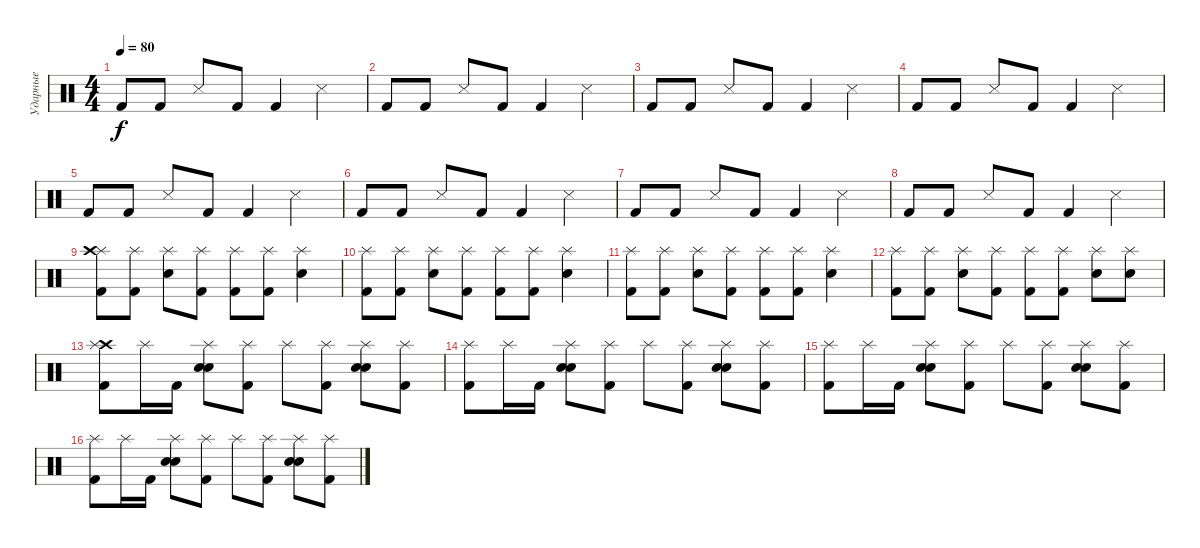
\track ("Ударные" "Ударные") {instrument percussion}
\staff {score}
\articulation defaults
\ts (4 4)
\tempo 80
\clef neutral
\ks c "Kick (hit) 2".8{dy f} "Kick (hit) 2".8 "Snare (side stick) 3".8 "Kick (hit) 2".8 "Kick (hit) 2".4 "Snare (side stick) 3".4
|
"Kick (hit) 2".8 "Kick (hit) 2".8 "Snare (side stick) 3".8 "Kick (hit) 2".8 "Kick (hit) 2".4 "Snare (side stick) 3".4 |
"Kick (hit) 2".8 "Kick (hit) 2".8 "Snare (side stick) 3".8 "Kick (hit) 2".8 "Kick (hit) 2".4 "Snare (side stick) 3".4 |
"Kick (hit) 2".8 "Kick (hit) 2".8 "Snare (side stick) 3".8 "Kick (hit) 2".8 "Kick (hit) 2".4 "Snare (side stick) 3".4 |
"Kick (hit) 2".8 "Kick (hit) 2".8 "Snare (side stick) 3".8 "Kick (hit) 2".8 "Kick (hit) 2".4 "Snare (side stick) 3".4 |
"Kick (hit) 2".8 "Kick (hit) 2".8 "Snare (side stick) 3".8 "Kick (hit) 2".8 "Kick (hit) 2".4 "Snare (side stick) 3".4 |
"Kick (hit) 2".8 "Kick (hit) 2".8 "Snare (side stick) 3".8 "Kick (hit) 2".8 "Kick (hit) 2".4 "Snare (side stick) 3".4 |
"Kick (hit) 2".8 "Kick (hit) 2".8 "Snare (side stick) 3".8 "Kick (hit) 2".8 "Kick (hit) 2".4 "Snare (side stick) 3".4 |
("Splash (hit)" "Crash high (hit)" "Kick (hit) 2").8 ("Splash (hit)" "Kick (hit) 2").8 ("Splash (hit)" "Snare (hit) 2").8 ("Splash (hit)" "Kick (hit) 2").8 ("Splash (hit)" "Kick (hit) 2").8 ("Splash (hit)" "Kick (hit) 2").8 ("Splash (hit)" "Snare (hit) 2").4 |
("Splash (hit)" "Kick (hit) 2").8 ("Splash (hit)" "Kick (hit) 2").8 ("Splash (hit)" "Snare (hit) 2").8 ("Splash (hit)" "Kick (hit) 2").8 ("Splash (hit)" "Kick (hit) 2").8 ("Splash (hit)" "Kick (hit) 2").8 ("Splash (hit)" "Snare (hit) 2").4 |
("Splash (hit)" "Kick (hit) 2").8 ("Splash (hit)" "Kick (hit) 2").8 ("Splash (hit)" "Snare (hit) 2").8 ("Splash (hit)" "Kick (hit) 2").8 ("Splash (hit)" "Kick (hit) 2").8 ("Splash (hit)" "Kick (hit) 2").8 ("Splash (hit)" "Snare (hit) 2").4 |
("Splash (hit)" "Kick (hit) 2").8 ("Splash (hit)" "Kick (hit) 2").8 ("Splash (hit)" "Snare (hit) 2").8 ("Splash (hit)" "Kick (hit) 2").8 ("Splash (hit)" "Kick (hit) 2").8 ("Splash (hit)" "Kick (hit) 2").8 ("Splash (hit)" "Snare (hit) 2").8 ("Splash (hit)" "Snare (hit) 2").8 |
("Crash high (hit)" "Splash (hit)" "Kick (hit) 2").8 "Splash (hit)".16 "Kick (hit) 2".16 ("Splash (hit)" "Snare (hit) 2" "Snare (hit) 2").8 ("Splash (hit)" "Kick (hit) 2").8 "Splash (hit)".8 ("Splash (hit)" "Kick (hit) 2").8 ("Splash (hit)" "Snare (hit) 2" "Snare (hit) 2").8 ("Splash (hit)" "Kick (hit) 2").8 |
("Splash (hit)" "Kick (hit) 2").8 "Splash (hit)".16 "Kick (hit) 2".16 ("Splash (hit)" "Snare (hit) 2" "Snare (hit) 2").8 ("Splash (hit)" "Kick (hit) 2").8 "Splash (hit)".8 ("Splash (hit)" "Kick (hit) 2").8 ("Splash (hit)" "Snare (hit) 2" "Snare (hit) 2").8 ("Splash (hit)" "Kick (hit) 2").8 |
("Splash (hit)" "Kick (hit) 2").8 "Splash (hit)".16 "Kick (hit) 2".16 ("Splash (hit)" "Snare (hit) 2" "Snare (hit) 2").8 ("Splash (hit)" "Kick (hit) 2").8 "Splash (hit)".8 ("Splash (hit)" "Kick (hit) 2").8 ("Splash (hit)" "Snare (hit) 2" "Snare (hit) 2").8 ("Splash (hit)" "Kick (hit) 2").8 |
("Splash (hit)" "Kick (hit) 2").8 "Splash (hit)".16 "Kick (hit) 2".16 ("Splash (hit)" "Snare (hit) 2" "Snare (hit) 2").8 ("Splash (hit)" "Kick (hit) 2").8 "Splash (hit)".8 ("Splash (hit)" "Kick (hit) 2").8 ("Splash (hit)" "Snare (hit) 2" "Snare (hit) 2").8 ("Splash (hit)" "Kick (hit) 2").8
